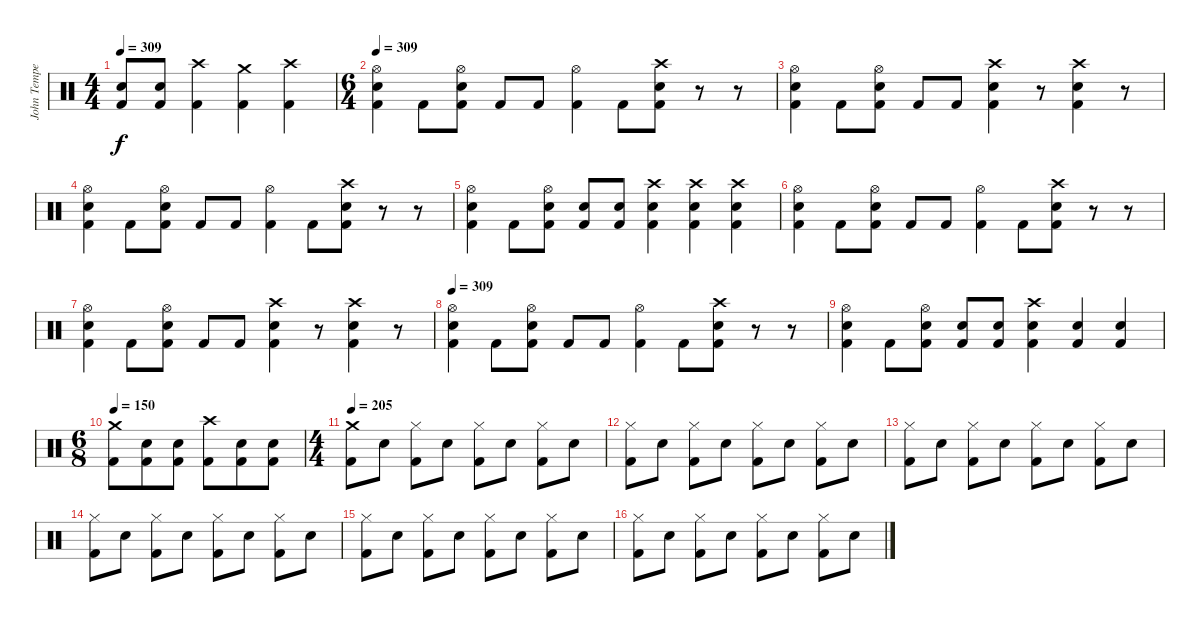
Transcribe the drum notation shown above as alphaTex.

\track ("John Tempesta" "John Tempe") {instrument percussion}
\staff {score}
\articulation defaults
\ts (4 4)
\tempo 309
\clef neutral
\ks c
("Kick (hit) 2" "Snare (hit) 2").8{dy f} ("Kick (hit) 2" "Snare (hit) 2").8 ("Kick (hit) 2" "Crash high (hit)").4 ("Kick (hit) 2" "Crash medium (hit)").4 ("Kick (hit) 2" "Crash high (hit)").4 |
\ts (6 4)
\tempo 309
("Kick (hit) 2" "Snare (hit) 2" "Hi-Hat (open)").4 "Kick (hit) 2".8 ("Kick (hit) 2" "Snare (hit) 2" "Hi-Hat (open)").8 "Kick (hit) 2".8 "Kick (hit) 2".8 ("Kick (hit) 2" "Hi-Hat (open)").4 "Kick (hit) 2".8 ("Kick (hit) 2" "Snare (hit) 2" "Crash high (hit)").8 r.8 r.8 |
("Kick (hit) 2" "Snare (hit) 2" "Hi-Hat (open)").4 "Kick (hit) 2".8 ("Kick (hit) 2" "Snare (hit) 2" "Hi-Hat (open)").8 "Kick (hit) 2".8 "Kick (hit) 2".8 ("Kick (hit) 2" "Snare (hit) 2" "Crash high (hit)").4 r.8 ("Kick (hit) 2" "Snare (hit) 2" "Crash high (hit)").4 r.8 |
("Kick (hit) 2" "Snare (hit) 2" "Hi-Hat (open)").4 "Kick (hit) 2".8 ("Kick (hit) 2" "Snare (hit) 2" "Hi-Hat (open)").8 "Kick (hit) 2".8 "Kick (hit) 2".8 ("Kick (hit) 2" "Hi-Hat (open)").4 "Kick (hit) 2".8 ("Kick (hit) 2" "Snare (hit) 2" "Crash high (hit)").8 r.8 r.8 |
("Kick (hit) 2" "Snare (hit) 2" "Hi-Hat (open)").4 "Kick (hit) 2".8 ("Kick (hit) 2" "Snare (hit) 2" "Hi-Hat (open)").8 ("Kick (hit) 2" "Snare (hit) 2").8 ("Kick (hit) 2" "Snare (hit) 2").8 ("Kick (hit) 2" "Snare (hit) 2" "Crash high (hit)").4 ("Kick (hit) 2" "Snare (hit) 2" "Crash high (hit)").4 ("Kick (hit) 2" "Snare (hit) 2" "Crash high (hit)").4 |
("Kick (hit) 2" "Snare (hit) 2" "Hi-Hat (open)").4 "Kick (hit) 2".8 ("Kick (hit) 2" "Snare (hit) 2" "Hi-Hat (open)").8 "Kick (hit) 2".8 "Kick (hit) 2".8 ("Kick (hit) 2" "Hi-Hat (open)").4 "Kick (hit) 2".8 ("Kick (hit) 2" "Snare (hit) 2" "Crash high (hit)").8 r.8 r.8 |
("Kick (hit) 2" "Snare (hit) 2" "Hi-Hat (open)").4 "Kick (hit) 2".8 ("Kick (hit) 2" "Snare (hit) 2" "Hi-Hat (open)").8 "Kick (hit) 2".8 "Kick (hit) 2".8 ("Kick (hit) 2" "Snare (hit) 2" "Crash high (hit)").4 r.8 ("Kick (hit) 2" "Snare (hit) 2" "Crash high (hit)").4 r.8 |
\tempo 309
("Kick (hit) 2" "Snare (hit) 2" "Hi-Hat (open)").4 "Kick (hit) 2".8 ("Kick (hit) 2" "Snare (hit) 2" "Hi-Hat (open)").8 "Kick (hit) 2".8 "Kick (hit) 2".8 ("Kick (hit) 2" "Hi-Hat (open)").4 "Kick (hit) 2".8 ("Kick (hit) 2" "Snare (hit) 2" "Crash high (hit)").8 r.8 r.8 |
("Kick (hit) 2" "Snare (hit) 2" "Hi-Hat (open)").4 "Kick (hit) 2".8 ("Kick (hit) 2" "Snare (hit) 2" "Hi-Hat (open)").8 ("Kick (hit) 2" "Snare (hit) 2").8 ("Kick (hit) 2" "Snare (hit) 2").8 ("Kick (hit) 2" "Snare (hit) 2" "Crash high (hit)").4 ("Kick (hit) 2" "Snare (hit) 2").4 ("Kick (hit) 2" "Snare (hit) 2").4 |
\ts (6 8)
\tempo 150
("Kick (hit) 2" "Crash medium (hit)").8 ("Snare (hit) 2" "Kick (hit) 2").8 ("Snare (hit) 2" "Kick (hit) 2").8 ("Kick (hit) 2" "Crash high (hit)").8 ("Snare (hit) 2" "Kick (hit) 2").8 ("Snare (hit) 2" "Kick (hit) 2").8 |
\ts (4 4)
\tempo 205
("Kick (hit) 2" "Crash medium (hit)").8 "Snare (hit) 2".8 ("Kick (hit) 2" "Hi-Hat (closed)").8 "Snare (hit) 2".8 ("Kick (hit) 2" "Hi-Hat (closed)").8 "Snare (hit) 2".8 ("Kick (hit) 2" "Hi-Hat (closed)").8 "Snare (hit) 2".8 |
("Kick (hit) 2" "Hi-Hat (closed)").8 "Snare (hit) 2".8 ("Kick (hit) 2" "Hi-Hat (closed)").8 "Snare (hit) 2".8 ("Kick (hit) 2" "Hi-Hat (closed)").8 "Snare (hit) 2".8 ("Kick (hit) 2" "Hi-Hat (closed)").8 "Snare (hit) 2".8 |
("Kick (hit) 2" "Hi-Hat (closed)").8 "Snare (hit) 2".8 ("Kick (hit) 2" "Hi-Hat (closed)").8 "Snare (hit) 2".8 ("Kick (hit) 2" "Hi-Hat (closed)").8 "Snare (hit) 2".8 ("Kick (hit) 2" "Hi-Hat (closed)").8 "Snare (hit) 2".8 |
("Kick (hit) 2" "Hi-Hat (closed)").8 "Snare (hit) 2".8 ("Kick (hit) 2" "Hi-Hat (closed)").8 "Snare (hit) 2".8 ("Kick (hit) 2" "Hi-Hat (closed)").8 "Snare (hit) 2".8 ("Kick (hit) 2" "Hi-Hat (closed)").8 "Snare (hit) 2".8 |
("Kick (hit) 2" "Hi-Hat (closed)").8 "Snare (hit) 2".8 ("Kick (hit) 2" "Hi-Hat (closed)").8 "Snare (hit) 2".8 ("Kick (hit) 2" "Hi-Hat (closed)").8 "Snare (hit) 2".8 ("Kick (hit) 2" "Hi-Hat (closed)").8 "Snare (hit) 2".8 |
("Kick (hit) 2" "Hi-Hat (closed)").8 "Snare (hit) 2".8 ("Kick (hit) 2" "Hi-Hat (closed)").8 "Snare (hit) 2".8 ("Kick (hit) 2" "Hi-Hat (closed)").8 "Snare (hit) 2".8 ("Kick (hit) 2" "Hi-Hat (closed)").8 "Snare (hit) 2".8
